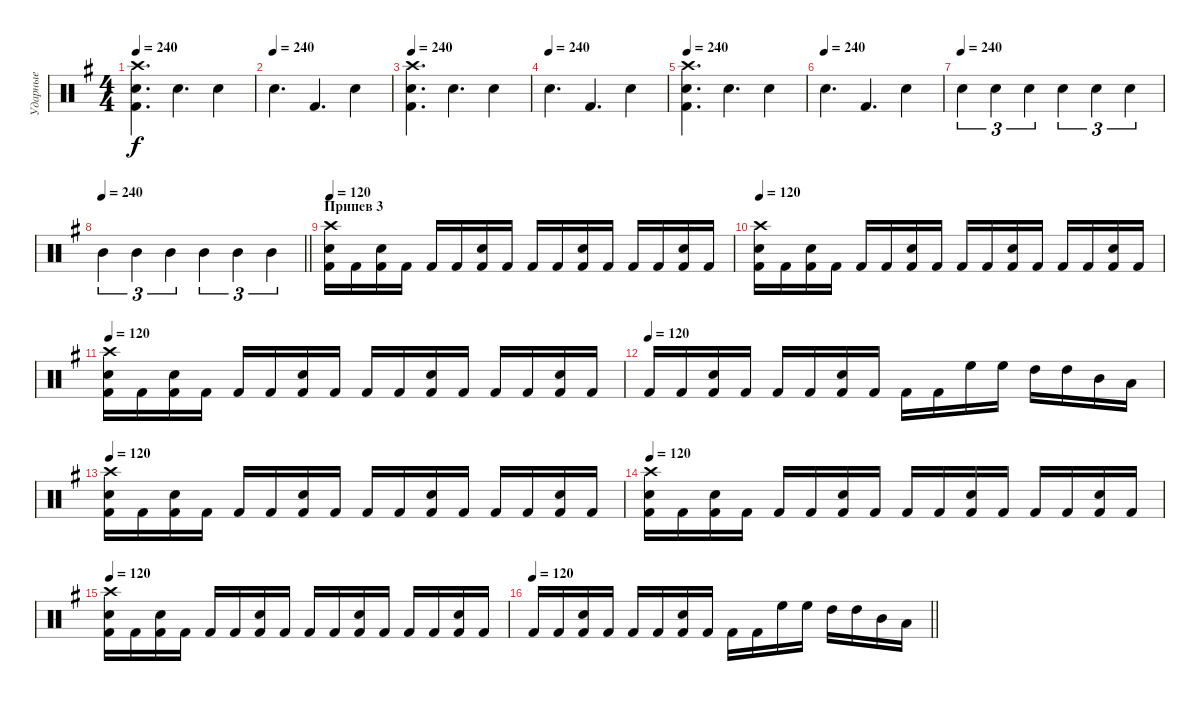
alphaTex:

\track ("Ударные" "Ударные") {solo instrument percussion}
\staff {score}
\articulation defaults
\ts (4 4)
\tempo 240
\clef neutral
\ks g
("Crash high (hit)" "Electric Snare (hit)" "Kick (hit) 2").4{d dy f} "Electric Snare (hit)".4{d} "Electric Snare (hit)".4 |
\tempo (240)
"Electric Snare (hit)".4{d} "Kick (hit) 2".4{d} "Electric Snare (hit)".4 |
\tempo 240
("Crash high (hit)" "Electric Snare (hit)" "Kick (hit) 2").4{d} "Electric Snare (hit)".4{d} "Electric Snare (hit)".4 |
\tempo (240)
"Electric Snare (hit)".4{d} "Kick (hit) 2".4{d} "Electric Snare (hit)".4 |
\tempo 240
("Crash high (hit)" "Electric Snare (hit)" "Kick (hit) 2").4{d} "Electric Snare (hit)".4{d} "Electric Snare (hit)".4 |
\tempo (240)
"Electric Snare (hit)".4{d} "Kick (hit) 2".4{d} "Electric Snare (hit)".4 |
\tempo (240)
"Electric Snare (hit)".4{tu (3 2)} "Electric Snare (hit)".4{tu (3 2)} "Electric Snare (hit)".4{tu (3 2)} "Electric Snare (hit)".4{tu (3 2)} "Electric Snare (hit)".4{tu (3 2)} "Electric Snare (hit)".4{tu (3 2)} |
\tempo 240
\barLineRight lightlight "Mid Tom (hit)".4{tu (3 2)} "Mid Tom (hit)".4{tu (3 2)} "Mid Tom (hit)".4{tu (3 2)} "Mid Tom (hit)".4{tu (3 2)} "Mid Tom (hit)".4{tu (3 2)} "Mid Tom (hit)".4{tu (3 2)}
|
\section ("" "Припев 3")
\tempo 120
("Crash high (hit)" "Electric Snare (hit)" "Kick (hit) 2").16 "Kick (hit) 2".16 ("Electric Snare (hit)" "Kick (hit) 2").16 "Kick (hit) 2".16 "Kick (hit) 2".16 "Kick (hit) 2".16 ("Electric Snare (hit)" "Kick (hit) 2").16 "Kick (hit) 2".16 "Kick (hit) 2".16 "Kick (hit) 2".16 ("Electric Snare (hit)" "Kick (hit) 2").16 "Kick (hit) 2".16 "Kick (hit) 2".16 "Kick (hit) 2".16 ("Electric Snare (hit)" "Kick (hit) 2").16 "Kick (hit) 2".16 |
\tempo 120
("Crash high (hit)" "Electric Snare (hit)" "Kick (hit) 2").16 "Kick (hit) 2".16 ("Electric Snare (hit)" "Kick (hit) 2").16 "Kick (hit) 2".16 "Kick (hit) 2".16 "Kick (hit) 2".16 ("Electric Snare (hit)" "Kick (hit) 2").16 "Kick (hit) 2".16 "Kick (hit) 2".16 "Kick (hit) 2".16 ("Electric Snare (hit)" "Kick (hit) 2").16 "Kick (hit) 2".16 "Kick (hit) 2".16 "Kick (hit) 2".16 ("Electric Snare (hit)" "Kick (hit) 2").16 "Kick (hit) 2".16 |
\tempo 120
("Crash high (hit)" "Electric Snare (hit)" "Kick (hit) 2").16 "Kick (hit) 2".16 ("Electric Snare (hit)" "Kick (hit) 2").16 "Kick (hit) 2".16 "Kick (hit) 2".16 "Kick (hit) 2".16 ("Electric Snare (hit)" "Kick (hit) 2").16 "Kick (hit) 2".16 "Kick (hit) 2".16 "Kick (hit) 2".16 ("Electric Snare (hit)" "Kick (hit) 2").16 "Kick (hit) 2".16 "Kick (hit) 2".16 "Kick (hit) 2".16 ("Electric Snare (hit)" "Kick (hit) 2").16 "Kick (hit) 2".16 |
\tempo (120)
"Kick (hit) 2".16 "Kick (hit) 2".16 ("Electric Snare (hit)" "Kick (hit) 2").16 "Kick (hit) 2".16 "Kick (hit) 2".16 "Kick (hit) 2".16 ("Electric Snare (hit)" "Kick (hit) 2").16 "Kick (hit) 2".16 "Kick (hit) 2".16 "Kick (hit) 2".16 "High Floor Tom (hit)".16 "High Floor Tom (hit)".16 "High Tom (hit)".16 "High Tom (hit)".16 "Mid Tom (hit)".16 "Low Tom (hit)".16 |
\tempo 120
("Crash high (hit)" "Electric Snare (hit)" "Kick (hit) 2").16 "Kick (hit) 2".16 ("Electric Snare (hit)" "Kick (hit) 2").16 "Kick (hit) 2".16 "Kick (hit) 2".16 "Kick (hit) 2".16 ("Electric Snare (hit)" "Kick (hit) 2").16 "Kick (hit) 2".16 "Kick (hit) 2".16 "Kick (hit) 2".16 ("Electric Snare (hit)" "Kick (hit) 2").16 "Kick (hit) 2".16 "Kick (hit) 2".16 "Kick (hit) 2".16 ("Electric Snare (hit)" "Kick (hit) 2").16 "Kick (hit) 2".16 |
\tempo 120
("Crash high (hit)" "Electric Snare (hit)" "Kick (hit) 2").16 "Kick (hit) 2".16 ("Electric Snare (hit)" "Kick (hit) 2").16 "Kick (hit) 2".16 "Kick (hit) 2".16 "Kick (hit) 2".16 ("Electric Snare (hit)" "Kick (hit) 2").16 "Kick (hit) 2".16 "Kick (hit) 2".16 "Kick (hit) 2".16 ("Electric Snare (hit)" "Kick (hit) 2").16 "Kick (hit) 2".16 "Kick (hit) 2".16 "Kick (hit) 2".16 ("Electric Snare (hit)" "Kick (hit) 2").16 "Kick (hit) 2".16 |
\tempo 120
("Crash high (hit)" "Electric Snare (hit)" "Kick (hit) 2").16 "Kick (hit) 2".16 ("Electric Snare (hit)" "Kick (hit) 2").16 "Kick (hit) 2".16 "Kick (hit) 2".16 "Kick (hit) 2".16 ("Electric Snare (hit)" "Kick (hit) 2").16 "Kick (hit) 2".16 "Kick (hit) 2".16 "Kick (hit) 2".16 ("Electric Snare (hit)" "Kick (hit) 2").16 "Kick (hit) 2".16 "Kick (hit) 2".16 "Kick (hit) 2".16 ("Electric Snare (hit)" "Kick (hit) 2").16 "Kick (hit) 2".16 |
\tempo 120
\barLineRight lightlight "Kick (hit) 2".16 "Kick (hit) 2".16
("Electric Snare (hit)" "Kick (hit) 2").16 "Kick (hit) 2".16 "Kick (hit) 2".16 "Kick (hit) 2".16 ("Electric Snare (hit)" "Kick (hit) 2").16 "Kick (hit) 2".16 "Kick (hit) 2".16 "Kick (hit) 2".16 "High Floor Tom (hit)".16 "High Floor Tom (hit)".16 "High Tom (hit)".16 "High Tom (hit)".16 "Mid Tom (hit)".16 "Low Tom (hit)".16
